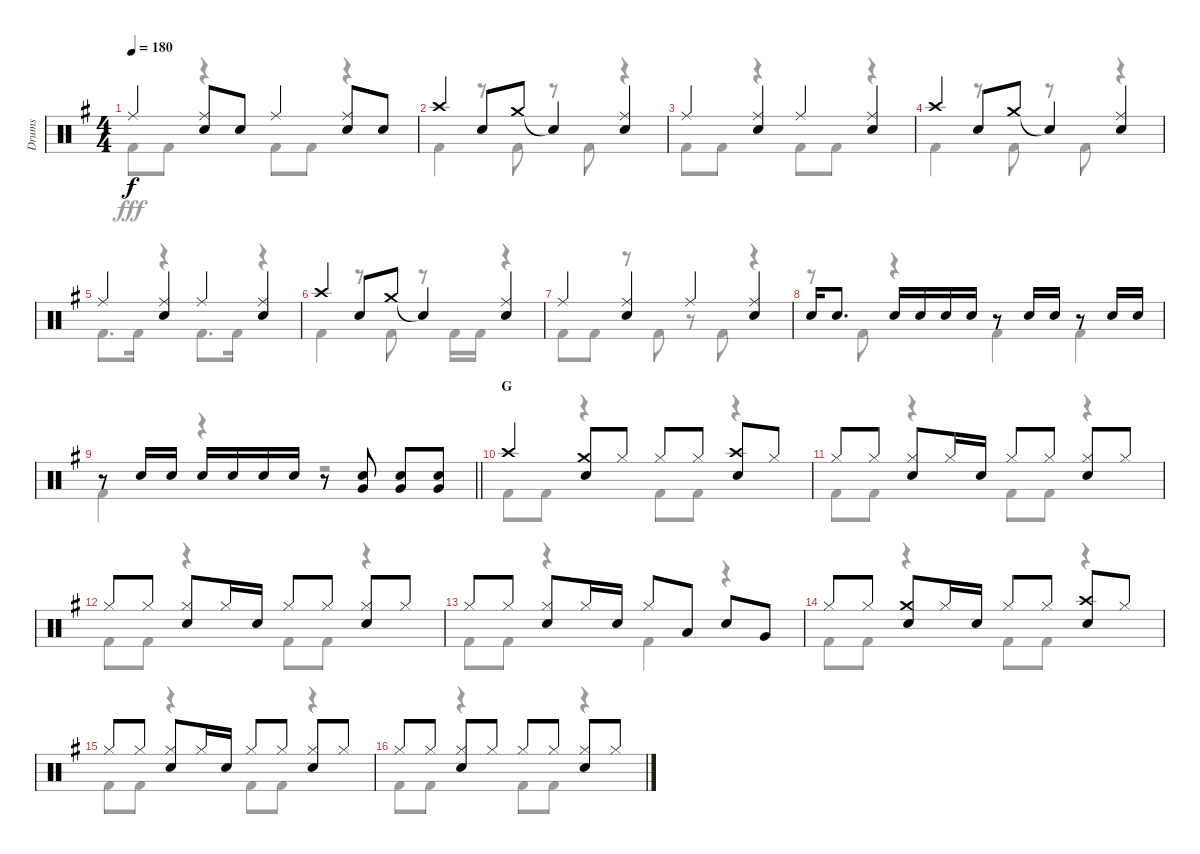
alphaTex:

\track ("Drums" "Drums") {instrument percussion}
\staff {score}
\articulation defaults
\voice
\ts (4 4)
\tempo 180
\clef neutral
\ks g "Ride (middle)".4{dy f}
("Ride (middle)" "Snare (hit) 2").8 "Snare (hit) 2".8 "Ride (middle)".4 ("Ride (middle)" "Snare (hit) 2").8 "Snare (hit) 2".8 |
"Crash high (hit)".4 "Snare (hit) 2".8 "Crash medium (hit)".8 "Snare (hit)"{t}.4 ("Ride (middle)" "Snare (hit) 2").4 |
"Ride (middle)".4 ("Ride (middle)" "Snare (hit) 2").4 "Ride (middle)".4 ("Ride (middle)" "Snare (hit) 2").4 |
"Crash high (hit)".4 "Snare (hit) 2".8 "Crash medium (hit)".8 "Snare (hit)"{t}.4 ("Ride (middle)" "Snare (hit) 2").4 |
"Ride (middle)".4 ("Ride (middle)" "Snare (hit) 2").4 "Ride (middle)".4 ("Ride (middle)" "Snare (hit) 2").4 |
"Crash high (hit)".4 "Snare (hit) 2".8 "Crash medium (hit)".8 "Snare (hit)"{t}.4 ("Ride (middle)" "Snare (hit) 2").4 |
"Ride (middle)".4 ("Ride (middle)" "Snare (hit) 2").4 "Ride (middle)".4 ("Ride (middle)" "Snare (hit) 2").4 |
"Snare (hit) 2".16 "Snare (hit) 2".8{d} "Snare (hit) 2".16 "Snare (hit) 2".16 "Snare (hit) 2".16 "Snare (hit) 2".16 r.8 "Snare (hit) 2".16 "Snare (hit) 2".16 r.8 "Snare (hit) 2".16 "Snare (hit) 2".16 |
\barLineRight lightlight
r.8 "Snare (hit) 2".16 "Snare (hit) 2".16 "Snare (hit) 2".16 "Snare (hit) 2".16 "Snare (hit) 2".16 "Snare (hit) 2".16 r.8 ("Snare (hit) 2" "Very Low Tom (hit)").8 ("Snare (hit) 2" "Very Low Tom (hit)").8 ("Snare (hit) 2" "Very Low Tom (hit)").8 |
\section ("" "G")
"Crash high (hit)".4 ("Crash medium (hit)" "Snare (hit) 2").8 "Hi-Hat (closed)".8 "Hi-Hat (closed)".8 "Hi-Hat (closed)".8 ("Crash high (hit)" "Snare (hit) 2").8 "Hi-Hat (closed)".8 |
"Hi-Hat (closed)".8 "Hi-Hat (closed)".8 ("Hi-Hat (closed)" "Snare (hit) 2").8 "Hi-Hat (closed)".16 "Snare (hit) 2".16 "Hi-Hat (closed)".8 "Hi-Hat (closed)".8 ("Hi-Hat (closed)" "Snare (hit) 2").8 "Hi-Hat (closed)".8 |
"Hi-Hat (closed)".8 "Hi-Hat (closed)".8 ("Hi-Hat (closed)" "Snare (hit) 2").8 "Hi-Hat (closed)".16 "Snare (hit) 2".16 "Hi-Hat (closed)".8 "Hi-Hat (closed)".8 ("Hi-Hat (closed)" "Snare (hit) 2").8 "Hi-Hat (closed)".8 |
"Hi-Hat (closed)".8 "Hi-Hat (closed)".8 ("Hi-Hat (closed)" "Snare (hit) 2").8 "Hi-Hat (closed)".16 "Snare (hit) 2".16 "Hi-Hat (closed)".8 "Low Tom (hit)".8 "Snare (hit) 2".8 "Very Low Tom (hit)".8 |
"Hi-Hat (closed)".8 "Hi-Hat (closed)".8 ("Crash medium (hit)" "Snare (hit) 2").8 "Hi-Hat (closed)".16 "Snare (hit) 2".16 "Hi-Hat (closed)".8 "Hi-Hat (closed)".8 ("Crash high (hit)" "Snare (hit) 2").8 "Hi-Hat (closed)".8 |
"Hi-Hat (closed)".8 "Hi-Hat (closed)".8 ("Hi-Hat (closed)" "Snare (hit) 2").8 "Hi-Hat (closed)".16 "Snare (hit) 2".16 "Hi-Hat (closed)".8 "Hi-Hat (closed)".8 ("Hi-Hat (closed)" "Snare (hit) 2").8 "Hi-Hat (closed)".8 |
"Hi-Hat (closed)".8 "Hi-Hat (closed)".8 ("Hi-Hat (closed)" "Snare (hit) 2").8 "Hi-Hat (closed)".8 "Hi-Hat (closed)".8 "Hi-Hat (closed)".8 ("Hi-Hat (closed)" "Snare (hit) 2").8 "Hi-Hat (closed)".8
\voice
\clef neutral
\ottava regular
\simile none
\ks g "Kick (hit) 2".8{dy fff} "Kick (hit) 2".8
r.4 "Kick (hit) 2".8 "Kick (hit) 2".8 r.4 |
"Kick (hit) 2".4 r.8 "Kick (hit) 2".8 r.8 "Kick (hit) 2".8 r.4 |
"Kick (hit) 2".8 "Kick (hit) 2".8 r.4 "Kick (hit) 2".8 "Kick (hit) 2".8 r.4 |
"Kick (hit) 2".4 r.8 "Kick (hit) 2".8 r.8 "Kick (hit) 2".8 r.4 |
"Kick (hit) 2".8{d} "Kick (hit) 2".16 r.4 "Kick (hit) 2".8{d} "Kick (hit) 2".16 r.4 |
"Kick (hit) 2".4 r.8 "Kick (hit) 2".8 r.8 "Kick (hit) 2".16 "Kick (hit) 2".16 r.4 |
"Kick (hit) 2".8 "Kick (hit) 2".8 r.8 "Kick (hit) 2".8 r.8 "Kick (hit) 2".8 r.4 |
r.8 "Kick (hit) 2".8 r.4 "Kick (hit) 2".4 "Kick (hit) 2".4 |
\barLineRight lightlight "Kick (hit) 2".4
r.4 r.2 |
"Kick (hit) 2".8 "Kick (hit) 2".8 r.4 "Kick (hit) 2".8 "Kick (hit) 2".8 r.4 |
"Kick (hit) 2".8 "Kick (hit) 2".8 r.4 "Kick (hit) 2".8 "Kick (hit) 2".8 r.4 |
"Kick (hit) 2".8 "Kick (hit) 2".8 r.4 "Kick (hit) 2".8 "Kick (hit) 2".8 r.4 |
"Kick (hit) 2".8 "Kick (hit) 2".8 r.4 "Kick (hit) 2".4 r.4 |
"Kick (hit) 2".8 "Kick (hit) 2".8 r.4 "Kick (hit) 2".8 "Kick (hit) 2".8 r.4 |
"Kick (hit) 2".8 "Kick (hit) 2".8 r.4 "Kick (hit) 2".8 "Kick (hit) 2".8 r.4 |
"Kick (hit) 2".8 "Kick (hit) 2".8 r.4 "Kick (hit) 2".8 "Kick (hit) 2".8 r.4
